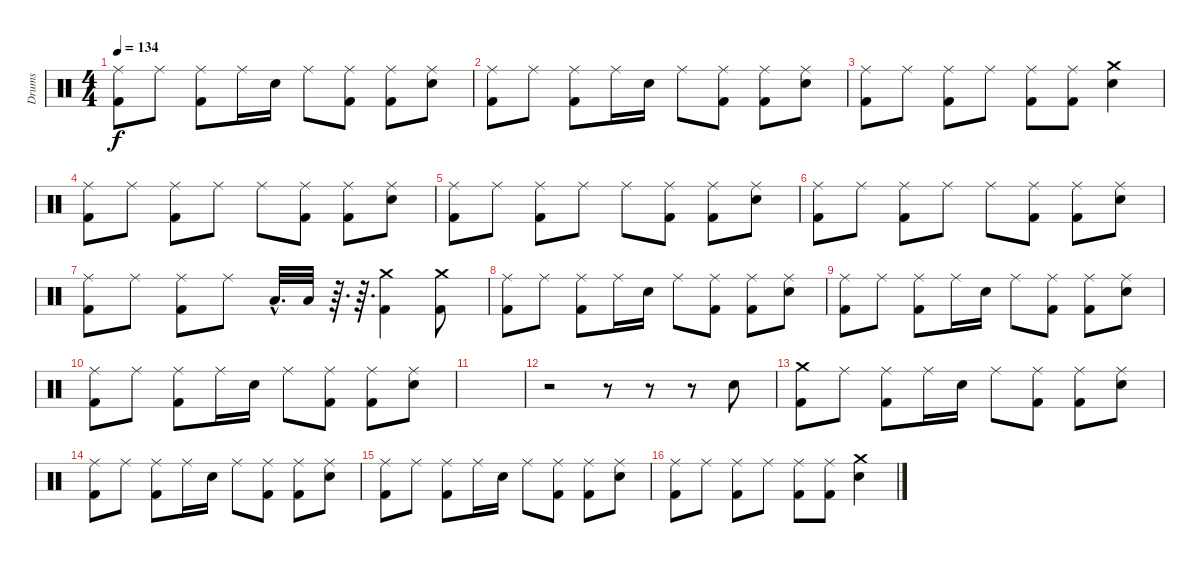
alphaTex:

\track ("Drums" "Drums") {instrument percussion}
\staff {score}
\articulation defaults
\ts (4 4)
\tempo 134
\clef neutral
\ks c
("Ride (middle)" "Kick (hit) 2").8{dy f} "Ride (middle)".8 ("Ride (middle)" "Kick (hit) 2").8 "Ride (middle)".16 "Snare (hit) 2".16 "Ride (middle)".8 ("Ride (middle)" "Kick (hit) 2").8 ("Ride (middle)" "Kick (hit) 2").8 ("Ride (middle)" "Snare (hit) 2").8 |
("Ride (middle)" "Kick (hit) 2").8 "Ride (middle)".8 ("Ride (middle)" "Kick (hit) 2").8 "Ride (middle)".16 "Snare (hit) 2".16 "Ride (middle)".8 ("Ride (middle)" "Kick (hit) 2").8 ("Ride (middle)" "Kick (hit) 2").8 ("Ride (middle)" "Snare (hit) 2").8 |
("Ride (middle)" "Kick (hit) 2").8 "Ride (middle)".8 ("Ride (middle)" "Kick (hit) 2").8 "Ride (middle)".8 ("Ride (middle)" "Kick (hit) 2").8 ("Ride (middle)" "Kick (hit) 2").8 ("Crash medium (hit)" "Snare (hit) 2").4 |
("Ride (middle)" "Kick (hit) 2").8 "Ride (middle)".8 ("Ride (middle)" "Kick (hit) 2").8 "Ride (middle)".8 "Ride (middle)".8 ("Ride (middle)" "Kick (hit) 2").8 ("Ride (middle)" "Kick (hit) 2").8 ("Ride (middle)" "Snare (hit) 2").8 |
("Ride (middle)" "Kick (hit) 2").8 "Ride (middle)".8 ("Ride (middle)" "Kick (hit) 2").8 "Ride (middle)".8 "Ride (middle)".8 ("Ride (middle)" "Kick (hit) 2").8 ("Ride (middle)" "Kick (hit) 2").8 ("Ride (middle)" "Snare (hit) 2").8 |
("Ride (middle)" "Kick (hit) 2").8 "Ride (middle)".8 ("Ride (middle)" "Kick (hit) 2").8 "Ride (middle)".8 "Ride (middle)".8 ("Ride (middle)" "Kick (hit) 2").8 ("Ride (middle)" "Kick (hit) 2").8 ("Ride (middle)" "Snare (hit) 2").8 |
("Ride (middle)" "Kick (hit) 2").8 "Ride (middle)".8 ("Ride (middle)" "Kick (hit) 2").8 "Ride (middle)".8 "Low Tom (hit)"{hac}.32{d} "Low Tom (hit)".32 r.64{d} r.64{d} ("Crash medium (hit)" "Kick (hit) 2").4 ("Crash medium (hit)" "Kick (hit) 2").8 |
("Ride (middle)" "Kick (hit) 2").8 "Ride (middle)".8 ("Ride (middle)" "Kick (hit) 2").8 "Ride (middle)".16 "Snare (hit) 2".16 "Ride (middle)".8 ("Ride (middle)" "Kick (hit) 2").8 ("Ride (middle)" "Kick (hit) 2").8 ("Ride (middle)" "Snare (hit) 2").8 |
("Ride (middle)" "Kick (hit) 2").8 "Ride (middle)".8 ("Ride (middle)" "Kick (hit) 2").8 "Ride (middle)".16 "Snare (hit) 2".16 "Ride (middle)".8 ("Ride (middle)" "Kick (hit) 2").8 ("Ride (middle)" "Kick (hit) 2").8 ("Ride (middle)" "Snare (hit) 2").8 |
("Ride (middle)" "Kick (hit) 2").8 "Ride (middle)".8 ("Ride (middle)" "Kick (hit) 2").8 "Ride (middle)".16 "Snare (hit) 2".16 "Ride (middle)".8 ("Ride (middle)" "Kick (hit) 2").8 ("Ride (middle)" "Kick (hit) 2").8 ("Ride (middle)" "Snare (hit) 2").8 |
|
r.2 r.8 r.8 r.8 "Snare (hit) 2".8 |
("Crash medium (hit)" "Kick (hit) 2").8 "Ride (middle)".8 ("Ride (middle)" "Kick (hit) 2").8 "Ride (middle)".16 "Snare (hit) 2".16 "Ride (middle)".8 ("Ride (middle)" "Kick (hit) 2").8 ("Ride (middle)" "Kick (hit) 2").8 ("Ride (middle)" "Snare (hit) 2").8 |
("Ride (middle)" "Kick (hit) 2").8 "Ride (middle)".8 ("Ride (middle)" "Kick (hit) 2").8 "Ride (middle)".16 "Snare (hit) 2".16 "Ride (middle)".8 ("Ride (middle)" "Kick (hit) 2").8 ("Ride (middle)" "Kick (hit) 2").8 ("Ride (middle)" "Snare (hit) 2").8 |
("Ride (middle)" "Kick (hit) 2").8 "Ride (middle)".8 ("Ride (middle)" "Kick (hit) 2").8 "Ride (middle)".16 "Snare (hit) 2".16 "Ride (middle)".8 ("Ride (middle)" "Kick (hit) 2").8 ("Ride (middle)" "Kick (hit) 2").8 ("Ride (middle)" "Snare (hit) 2").8 |
("Ride (middle)" "Kick (hit) 2").8 "Ride (middle)".8 ("Ride (middle)" "Kick (hit) 2").8 "Ride (middle)".8 ("Ride (middle)" "Kick (hit) 2").8 ("Ride (middle)" "Kick (hit) 2").8 ("Crash medium (hit)" "Snare (hit) 2").4
